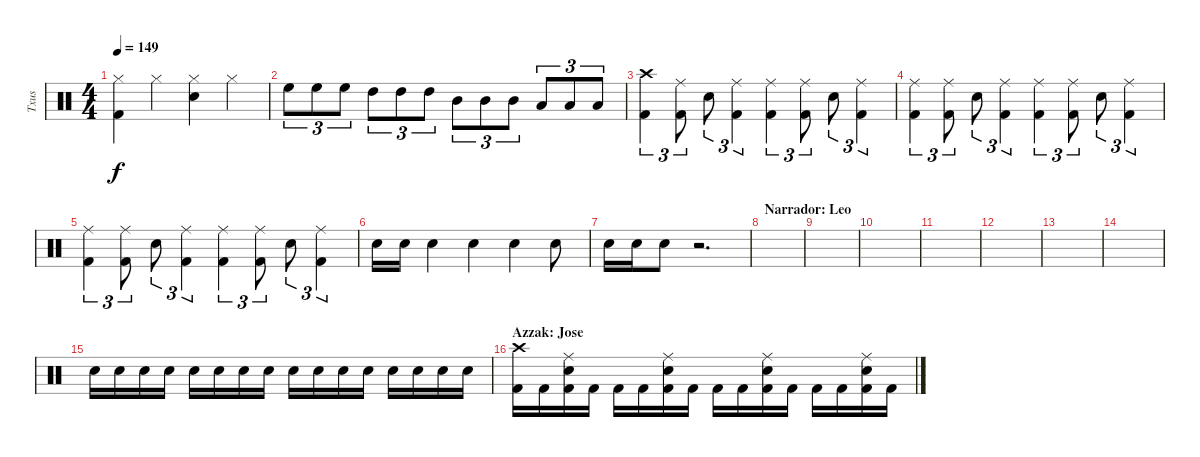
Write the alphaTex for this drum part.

\track ("Txus" "Txus") {instrument percussion}
\staff {score}
\articulation defaults
\ts (4 4)
\tempo 149
\clef neutral
\ks c
("Kick (hit) 2" "Hi-Hat (closed)").4{dy f} "Hi-Hat (closed)".4 ("Electric Snare (hit)" "Hi-Hat (closed)").4 "Hi-Hat (closed)".4 |
"High Floor Tom (hit)".8{tu (3 2)} "High Floor Tom (hit)".8{tu (3 2)} "High Floor Tom (hit)".8{tu (3 2)} "High Tom (hit)".8{tu (3 2)} "High Tom (hit)".8{tu (3 2)} "High Tom (hit)".8{tu (3 2)} "Mid Tom (hit)".8{tu (3 2)} "Mid Tom (hit)".8{tu (3 2)} "Mid Tom (hit)".8{tu (3 2)} "Low Tom (hit)".8{tu (3 2)} "Low Tom (hit)".8{tu (3 2)} "Low Tom (hit)".8{tu (3 2)} |
("Kick (hit) 2" "Crash high (hit)").4{tu (3 2)} ("Kick (hit) 2" "Ride (middle)").8{tu (3 2)} "Electric Snare (hit)".8{tu (3 2)} ("Kick (hit) 2" "Ride (middle)").4{tu (3 2)} ("Kick (hit) 2" "Ride (middle)").4{tu (3 2)} ("Kick (hit) 2" "Ride (middle)").8{tu (3 2)} "Electric Snare (hit)".8{tu (3 2)} ("Kick (hit) 2" "Ride (middle)").4{tu (3 2)} |
("Kick (hit) 2" "Ride (middle)").4{tu (3 2)} ("Kick (hit) 2" "Ride (middle)").8{tu (3 2)} "Electric Snare (hit)".8{tu (3 2)} ("Kick (hit) 2" "Ride (middle)").4{tu (3 2)} ("Kick (hit) 2" "Ride (middle)").4{tu (3 2)} ("Kick (hit) 2" "Ride (middle)").8{tu (3 2)} "Electric Snare (hit)".8{tu (3 2)} ("Kick (hit) 2" "Ride (middle)").4{tu (3 2)} |
("Kick (hit) 2" "Ride (middle)").4{tu (3 2)} ("Kick (hit) 2" "Ride (middle)").8{tu (3 2)} "Electric Snare (hit)".8{tu (3 2)} ("Kick (hit) 2" "Ride (middle)").4{tu (3 2)} ("Kick (hit) 2" "Ride (middle)").4{tu (3 2)} ("Kick (hit) 2" "Ride (middle)").8{tu (3 2)} "Electric Snare (hit)".8{tu (3 2)} ("Kick (hit) 2" "Ride (middle)").4{tu (3 2)} |
"Electric Snare (hit)".16 "Electric Snare (hit)".16 "Electric Snare (hit)".4 "Electric Snare (hit)".4 "Electric Snare (hit)".4 "Electric Snare (hit)".8 |
"Electric Snare (hit)".16 "Electric Snare (hit)".16 "Electric Snare (hit)".8 r.2{d} |
\section ("" "Narrador: Leo")
|
|
|
|
|
|
|
"Electric Snare (hit)".16{volume 7} "Electric Snare (hit)".16{volume 16} "Electric Snare (hit)".16 "Electric Snare (hit)".16 "Electric Snare (hit)".16 "Electric Snare (hit)".16 "Electric Snare (hit)".16 "Electric Snare (hit)".16 "Electric Snare (hit)".16 "Electric Snare (hit)".16 "Electric Snare (hit)".16 "Electric Snare (hit)".16 "Electric Snare (hit)".16 "Electric Snare (hit)".16 "Electric Snare (hit)".16 "Electric Snare (hit)".16 |
\section ("" "Azzak: Jose")
("Kick (hit) 2" "Crash high (hit)").16 "Kick (hit) 2".16 ("Kick (hit) 2" "Electric Snare (hit)" "Ride (middle)").16 "Kick (hit) 2".16 "Kick (hit) 2".16 "Kick (hit) 2".16 ("Kick (hit) 2" "Electric Snare (hit)" "Ride (middle)").16 "Kick (hit) 2".16 "Kick (hit) 2".16 "Kick (hit) 2".16 ("Kick (hit) 2" "Electric Snare (hit)" "Ride (middle)").16 "Kick (hit) 2".16 "Kick (hit) 2".16 "Kick (hit) 2".16 ("Kick (hit) 2" "Electric Snare (hit)" "Ride (middle)").16 "Kick (hit) 2".16
